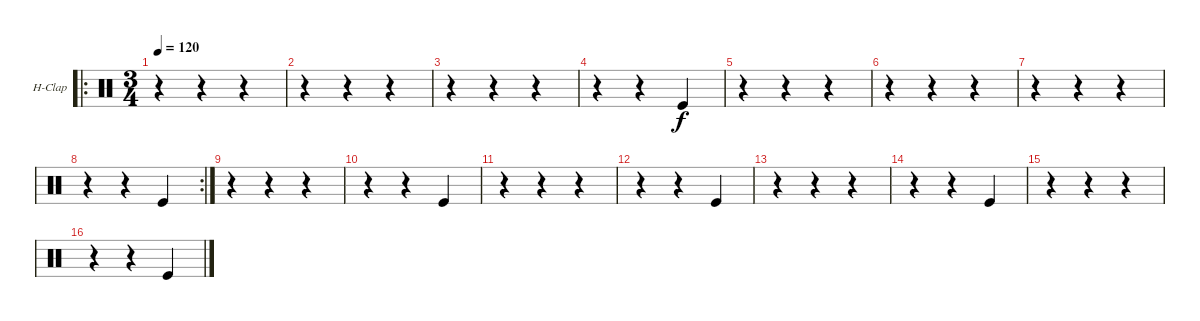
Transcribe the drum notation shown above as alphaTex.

\bracketExtendMode groupsimilarinstruments
\firstSystemTrackNameOrientation horizontal
\otherSystemsTrackNameOrientation horizontal
\track ("Hand Clap" "H-Clap") {instrument percussion}
\staff {score}
\articulation defaults
\ro
\ts (3 4)
\tempo 120
\clef neutral
\ks c
r.4{dy f} r.4 r.4 |
r.4 r.4 r.4 |
r.4 r.4 r.4 |
r.4 r.4 "Kick (hit)".4 |
r.4 r.4 r.4 |
r.4 r.4 r.4 |
r.4 r.4 r.4 |
\rc 2
r.4 r.4 "Kick (hit)".4 |
r.4 r.4 r.4 |
r.4 r.4 "Kick (hit)".4 |
r.4 r.4 r.4 |
r.4 r.4 "Kick (hit)".4 |
r.4 r.4 r.4 |
r.4 r.4 "Kick (hit)".4 |
r.4 r.4 r.4 |
r.4 r.4 "Kick (hit)".4
